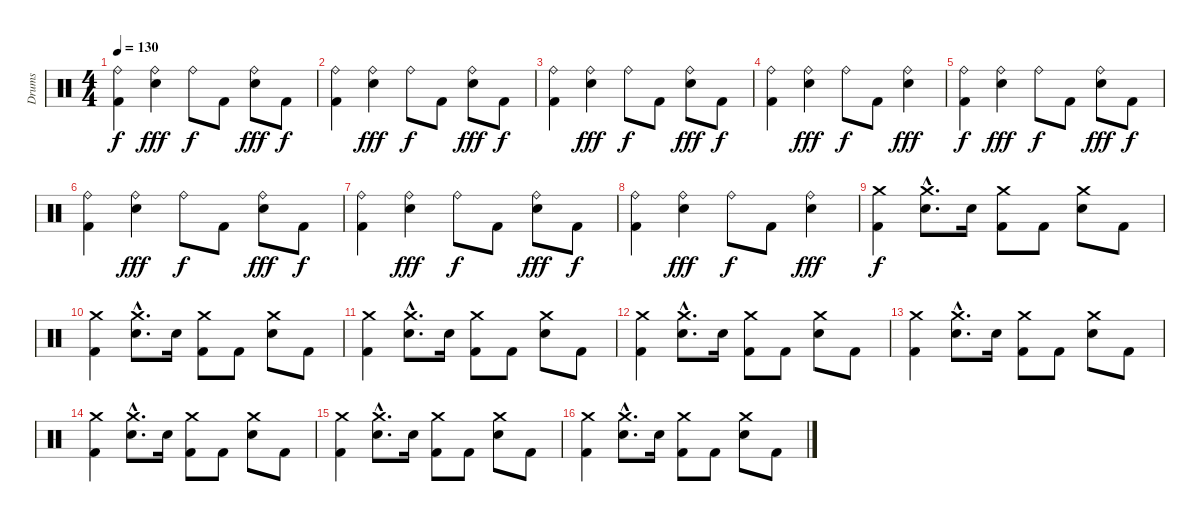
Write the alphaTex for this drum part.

\track ("Drums" "Drums") {instrument percussion}
\staff {score}
\articulation defaults
\ts (4 4)
\tempo 130
\clef neutral
\ks c
("Ride (bell)" "Kick (hit) 2").4{dy f} ("Ride (bell)" "Snare (hit) 2").4{dy fff} "Ride (bell)".8{dy f} "Kick (hit) 2".8 ("Ride (bell)" "Snare (hit) 2").8{dy fff} "Kick (hit) 2".8{dy f} |
("Ride (bell)" "Kick (hit) 2").4 ("Ride (bell)" "Snare (hit) 2").4{dy fff} "Ride (bell)".8{dy f} "Kick (hit) 2".8 ("Ride (bell)" "Snare (hit) 2").8{dy fff} "Kick (hit) 2".8{dy f} |
("Ride (bell)" "Kick (hit) 2").4 ("Ride (bell)" "Snare (hit) 2").4{dy fff} "Ride (bell)".8{dy f} "Kick (hit) 2".8 ("Ride (bell)" "Snare (hit) 2").8{dy fff} "Kick (hit) 2".8{dy f} |
("Ride (bell)" "Kick (hit) 2").4 ("Ride (bell)" "Snare (hit) 2").4{dy fff} "Ride (bell)".8{dy f} "Kick (hit) 2".8 ("Ride (bell)" "Snare (hit) 2").4{dy fff} |
("Ride (bell)" "Kick (hit) 2").4{dy f} ("Ride (bell)" "Snare (hit) 2").4{dy fff} "Ride (bell)".8{dy f} "Kick (hit) 2".8 ("Ride (bell)" "Snare (hit) 2").8{dy fff} "Kick (hit) 2".8{dy f} |
("Ride (bell)" "Kick (hit) 2").4 ("Ride (bell)" "Snare (hit) 2").4{dy fff} "Ride (bell)".8{dy f} "Kick (hit) 2".8 ("Ride (bell)" "Snare (hit) 2").8{dy fff} "Kick (hit) 2".8{dy f} |
("Ride (bell)" "Kick (hit) 2").4 ("Ride (bell)" "Snare (hit) 2").4{dy fff} "Ride (bell)".8{dy f} "Kick (hit) 2".8 ("Ride (bell)" "Snare (hit) 2").8{dy fff} "Kick (hit) 2".8{dy f} |
("Ride (bell)" "Kick (hit) 2").4 ("Ride (bell)" "Snare (hit) 2").4{dy fff} "Ride (bell)".8{dy f} "Kick (hit) 2".8 ("Ride (bell)" "Snare (hit) 2").4{dy fff} |
("Crash medium (hit)" "Kick (hit) 2").4{dy f} ("Crash medium (hit)"{hac} "Snare (hit) 2"{hac}).8{d} "Snare (hit) 2".16 ("Crash medium (hit)" "Kick (hit) 2").8 "Kick (hit) 2".8 ("Crash medium (hit)" "Snare (hit) 2").8 "Kick (hit) 2".8 |
("Crash medium (hit)" "Kick (hit) 2").4 ("Crash medium (hit)"{hac} "Snare (hit) 2"{hac}).8{d} "Snare (hit) 2".16 ("Crash medium (hit)" "Kick (hit) 2").8 "Kick (hit) 2".8 ("Crash medium (hit)" "Snare (hit) 2").8 "Kick (hit) 2".8 |
("Crash medium (hit)" "Kick (hit) 2").4 ("Crash medium (hit)"{hac} "Snare (hit) 2"{hac}).8{d} "Snare (hit) 2".16 ("Crash medium (hit)" "Kick (hit) 2").8 "Kick (hit) 2".8 ("Crash medium (hit)" "Snare (hit) 2").8 "Kick (hit) 2".8 |
("Crash medium (hit)" "Kick (hit) 2").4 ("Crash medium (hit)"{hac} "Snare (hit) 2"{hac}).8{d} "Snare (hit) 2".16 ("Crash medium (hit)" "Kick (hit) 2").8 "Kick (hit) 2".8 ("Crash medium (hit)" "Snare (hit) 2").8 "Kick (hit) 2".8 |
("Crash medium (hit)" "Kick (hit) 2").4 ("Crash medium (hit)"{hac} "Snare (hit) 2"{hac}).8{d} "Snare (hit) 2".16 ("Crash medium (hit)" "Kick (hit) 2").8 "Kick (hit) 2".8 ("Crash medium (hit)" "Snare (hit) 2").8 "Kick (hit) 2".8 |
("Crash medium (hit)" "Kick (hit) 2").4 ("Crash medium (hit)"{hac} "Snare (hit) 2"{hac}).8{d} "Snare (hit) 2".16 ("Crash medium (hit)" "Kick (hit) 2").8 "Kick (hit) 2".8 ("Crash medium (hit)" "Snare (hit) 2").8 "Kick (hit) 2".8 |
("Crash medium (hit)" "Kick (hit) 2").4 ("Crash medium (hit)"{hac} "Snare (hit) 2"{hac}).8{d} "Snare (hit) 2".16 ("Crash medium (hit)" "Kick (hit) 2").8 "Kick (hit) 2".8 ("Crash medium (hit)" "Snare (hit) 2").8 "Kick (hit) 2".8 |
("Crash medium (hit)" "Kick (hit) 2").4 ("Crash medium (hit)"{hac} "Snare (hit) 2"{hac}).8{d} "Snare (hit) 2".16 ("Crash medium (hit)" "Kick (hit) 2").8 "Kick (hit) 2".8 ("Crash medium (hit)" "Snare (hit) 2").8 "Kick (hit) 2".8
